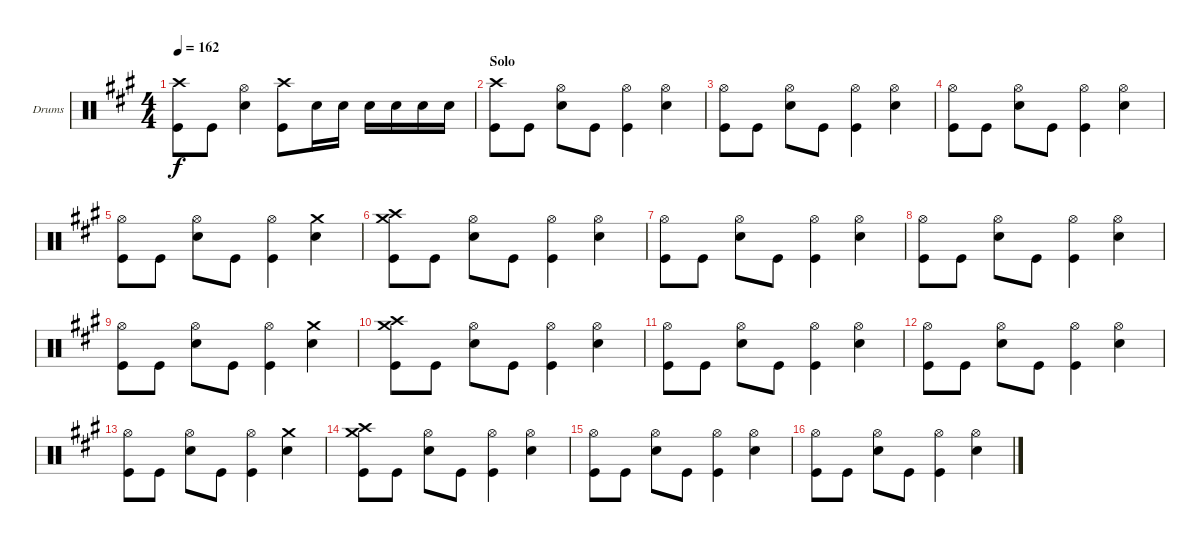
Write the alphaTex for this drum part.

\defaultSystemsLayout 4
\bracketExtendMode groupsimilarinstruments
\firstSystemTrackNameOrientation horizontal
\otherSystemsTrackNameOrientation horizontal
\track ("Drums" "Drums") {instrument percussion}
\staff {score}
\articulation defaults
\ts (4 4)
\tempo 162
\clef neutral
\scale
1.05801
\ks a
("Crash high (hit)" "Kick (hit)").8{dy f} "Kick (hit)".8 ("Hi-Hat (open)" "Snare (hit) 2").4 ("Crash high (hit)" "Kick (hit)").8 "Snare (hit) 2".16 "Snare (hit) 2".16 "Snare (hit) 2".16 "Snare (hit) 2".16 "Snare (hit) 2".16 "Snare (hit) 2".16 |
\section ("" "Solo")
\scale
0.941992 ("Crash high (hit)" "Kick (hit)").8 "Kick (hit)".8 ("Hi-Hat (open)" "Snare (hit) 2").8 "Kick (hit)".8 ("Hi-Hat (open)" "Kick (hit)").4 ("Hi-Hat (open)" "Snare (hit) 2").4 |
\scale
1.05801 ("Hi-Hat (open)" "Kick (hit)").8 "Kick (hit)".8 ("Hi-Hat (open)" "Snare (hit) 2").8 "Kick (hit)".8 ("Hi-Hat (open)" "Kick (hit)").4 ("Hi-Hat (open)" "Snare (hit) 2").4 |
\scale
0.941992 ("Hi-Hat (open)" "Kick (hit)").8 "Kick (hit)".8 ("Hi-Hat (open)" "Snare (hit) 2").8 "Kick (hit)".8 ("Hi-Hat (open)" "Kick (hit)").4 ("Hi-Hat (open)" "Snare (hit) 2").4 |
\scale
1.05801 ("Hi-Hat (open)" "Kick (hit)").8 "Kick (hit)".8 ("Hi-Hat (open)" "Snare (hit) 2").8 "Kick (hit)".8 ("Hi-Hat (open)" "Kick (hit)").4 ("Crash medium (hit)" "Snare (hit) 2").4 |
\scale
0.941992 ("Crash medium (hit)" "Crash high (hit)" "Kick (hit)").8 "Kick (hit)".8 ("Hi-Hat (open)" "Snare (hit) 2").8 "Kick (hit)".8 ("Hi-Hat (open)" "Kick (hit)").4 ("Hi-Hat (open)" "Snare (hit) 2").4 |
\scale
1.05801 ("Hi-Hat (open)" "Kick (hit)").8 "Kick (hit)".8 ("Hi-Hat (open)" "Snare (hit) 2").8 "Kick (hit)".8 ("Hi-Hat (open)" "Kick (hit)").4 ("Hi-Hat (open)" "Snare (hit) 2").4 |
\scale
0.941992 ("Hi-Hat (open)" "Kick (hit)").8 "Kick (hit)".8 ("Hi-Hat (open)" "Snare (hit) 2").8 "Kick (hit)".8 ("Hi-Hat (open)" "Kick (hit)").4 ("Hi-Hat (open)" "Snare (hit) 2").4 |
\scale
1.05801 ("Hi-Hat (open)" "Kick (hit)").8 "Kick (hit)".8 ("Hi-Hat (open)" "Snare (hit) 2").8 "Kick (hit)".8 ("Hi-Hat (open)" "Kick (hit)").4 ("Crash medium (hit)" "Snare (hit) 2").4 |
\scale
0.941992 ("Crash medium (hit)" "Crash high (hit)" "Kick (hit)").8 "Kick (hit)".8 ("Hi-Hat (open)" "Snare (hit) 2").8 "Kick (hit)".8 ("Hi-Hat (open)" "Kick (hit)").4 ("Hi-Hat (open)" "Snare (hit) 2").4 |
\scale
1.05801 ("Hi-Hat (open)" "Kick (hit)").8 "Kick (hit)".8 ("Hi-Hat (open)" "Snare (hit) 2").8 "Kick (hit)".8 ("Hi-Hat (open)" "Kick (hit)").4 ("Hi-Hat (open)" "Snare (hit) 2").4 |
\scale
0.941992 ("Hi-Hat (open)" "Kick (hit)").8 "Kick (hit)".8 ("Hi-Hat (open)" "Snare (hit) 2").8 "Kick (hit)".8 ("Hi-Hat (open)" "Kick (hit)").4 ("Hi-Hat (open)" "Snare (hit) 2").4 |
\scale
1.05801 ("Hi-Hat (open)" "Kick (hit)").8 "Kick (hit)".8 ("Hi-Hat (open)" "Snare (hit) 2").8 "Kick (hit)".8 ("Hi-Hat (open)" "Kick (hit)").4 ("Crash medium (hit)" "Snare (hit) 2").4 |
\scale
0.941992 ("Crash medium (hit)" "Crash high (hit)" "Kick (hit)").8 "Kick (hit)".8 ("Hi-Hat (open)" "Snare (hit) 2").8 "Kick (hit)".8 ("Hi-Hat (open)" "Kick (hit)").4 ("Hi-Hat (open)" "Snare (hit) 2").4 |
\scale
1.05801 ("Hi-Hat (open)" "Kick (hit)").8 "Kick (hit)".8 ("Hi-Hat (open)" "Snare (hit) 2").8 "Kick (hit)".8 ("Hi-Hat (open)" "Kick (hit)").4 ("Hi-Hat (open)" "Snare (hit) 2").4 |
\scale
0.941992 ("Hi-Hat (open)" "Kick (hit)").8 "Kick (hit)".8 ("Hi-Hat (open)" "Snare (hit) 2").8 "Kick (hit)".8 ("Hi-Hat (open)" "Kick (hit)").4 ("Hi-Hat (open)" "Snare (hit) 2").4
